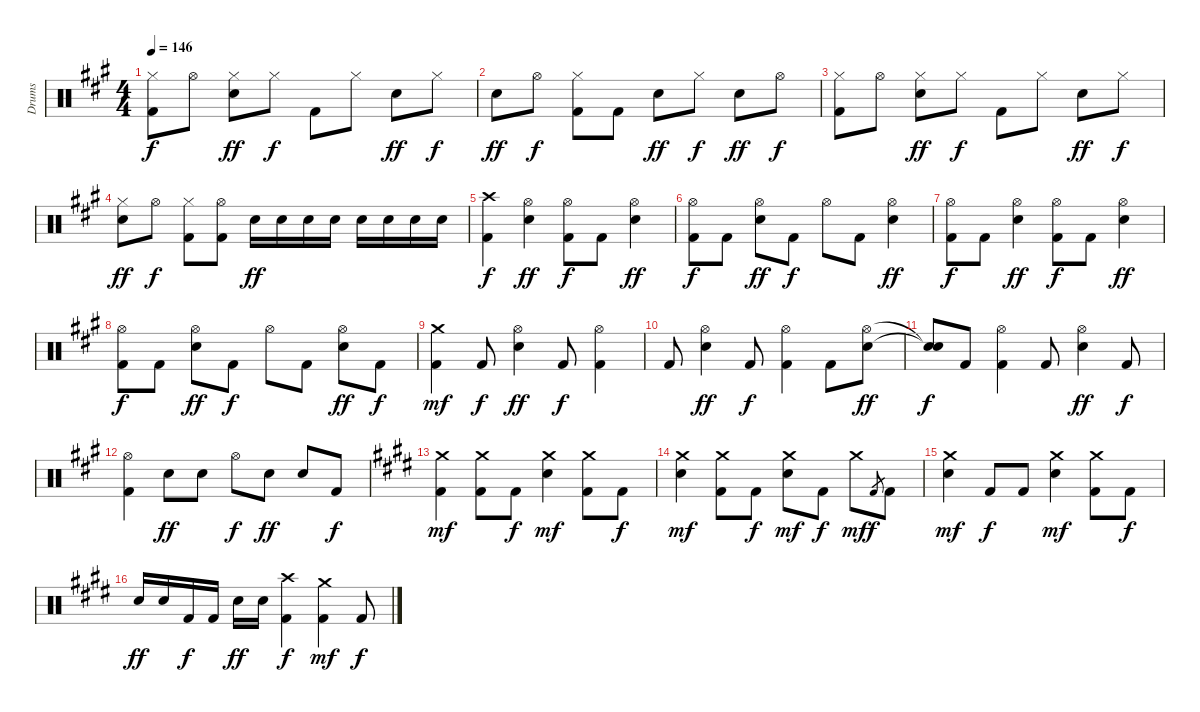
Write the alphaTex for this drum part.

\track ("Drums" "Drums") {instrument percussion}
\staff {score}
\articulation defaults
\ts (4 4)
\tempo 146
\clef neutral
\ks a
("Kick (hit) 2" "Hi-Hat (closed)").8{dy f} "Hi-Hat (open)".8 ("Electric Snare (hit)" "Hi-Hat (closed)").8{dy ff} "Hi-Hat (closed)".8{dy f} "Kick (hit) 2".8 "Hi-Hat (closed)".8 "Electric Snare (hit)".8{dy ff} "Hi-Hat (closed)".8{dy f} |
"Electric Snare (hit)".8{dy ff} "Hi-Hat (open)".8{dy f} ("Kick (hit) 2" "Hi-Hat (closed)").8 "Kick (hit) 2".8 "Electric Snare (hit)".8{dy ff} "Hi-Hat (closed)".8{dy f} "Electric Snare (hit)".8{dy ff} "Hi-Hat (open)".8{dy f} |
("Kick (hit) 2" "Hi-Hat (closed)").8 "Hi-Hat (open)".8 ("Electric Snare (hit)" "Hi-Hat (closed)").8{dy ff} "Hi-Hat (closed)".8{dy f} "Kick (hit) 2".8 "Hi-Hat (closed)".8 "Electric Snare (hit)".8{dy ff} "Hi-Hat (closed)".8{dy f} |
("Electric Snare (hit)" "Hi-Hat (closed)").8{dy ff} "Hi-Hat (open)".8{dy f} ("Kick (hit) 2" "Hi-Hat (closed)").8 ("Kick (hit) 2" "Hi-Hat (open)").8 "Electric Snare (hit)".16{dy ff} "Electric Snare (hit)".16 "Electric Snare (hit)".16 "Electric Snare (hit)".16 "Electric Snare (hit)".16 "Electric Snare (hit)".16 "Electric Snare (hit)".16 "Electric Snare (hit)".16 |
("Kick (hit) 2" "Crash high (hit)").4{dy f} ("Electric Snare (hit)" "Hi-Hat (open)").4{dy ff} ("Kick (hit) 2" "Hi-Hat (open)").8{dy f} "Kick (hit) 2".8 ("Electric Snare (hit)" "Hi-Hat (open)").4{dy ff} |
("Kick (hit) 2" "Hi-Hat (open)").8{dy f} "Kick (hit) 2".8 ("Electric Snare (hit)" "Hi-Hat (open)").8{dy ff} "Kick (hit) 2".8{dy f} "Hi-Hat (open)".8 "Kick (hit) 2".8 ("Electric Snare (hit)" "Hi-Hat (open)").4{dy ff} |
("Kick (hit) 2" "Hi-Hat (open)").8{dy f} "Kick (hit) 2".8 ("Electric Snare (hit)" "Hi-Hat (open)").4{dy ff} ("Kick (hit) 2" "Hi-Hat (open)").8{dy f} "Kick (hit) 2".8 ("Electric Snare (hit)" "Hi-Hat (open)").4{dy ff} |
("Kick (hit) 2" "Hi-Hat (open)").8{dy f} "Kick (hit) 2".8 ("Electric Snare (hit)" "Hi-Hat (open)").8{dy ff} "Kick (hit) 2".8{dy f} "Hi-Hat (open)".8 "Kick (hit) 2".8 ("Electric Snare (hit)" "Hi-Hat (open)").8{dy ff} "Kick (hit) 2".8{dy f} |
("Kick (hit) 2" "Crash medium (hit)").4{dy mf} "Kick (hit) 2".8{dy f} ("Electric Snare (hit)" "Hi-Hat (open)").4{dy ff} "Kick (hit) 2".8{dy f} ("Kick (hit) 2" "Hi-Hat (open)").4 |
"Kick (hit) 2".8 ("Electric Snare (hit)" "Hi-Hat (open)").4{dy ff} "Kick (hit) 2".8{dy f} ("Kick (hit) 2" "Hi-Hat (open)").4 "Kick (hit) 2".8 ("Electric Snare (hit)" "Hi-Hat (open)").8{dy ff} |
("Snare (hit)"{t} "Snare (hit)"{t}).8{dy f} "Kick (hit) 2".8 ("Kick (hit) 2" "Hi-Hat (open)").4 "Kick (hit) 2".8 ("Electric Snare (hit)" "Hi-Hat (open)").4{dy ff} "Kick (hit) 2".8{dy f} |
("Kick (hit) 2" "Hi-Hat (open)").4 "Electric Snare (hit)".8{dy ff} "Electric Snare (hit)".8 "Hi-Hat (open)".8{dy f} "Electric Snare (hit)".8{dy ff} "Electric Snare (hit)".8 "Kick (hit) 2".8{dy f} |
\ks e
("Kick (hit) 2" "Crash medium (hit)").4{dy mf} ("Kick (hit) 2" "Crash medium (hit)").8 "Kick (hit) 2".8{dy f} ("Electric Snare (hit)" "Crash medium (hit)").4{dy mf} ("Kick (hit) 2" "Crash medium (hit)").8 "Kick (hit) 2".8{dy f} |
("Electric Snare (hit)" "Crash medium (hit)").4{dy mf} ("Kick (hit) 2" "Crash medium (hit)").8 "Kick (hit) 2".8{dy f} ("Electric Snare (hit)" "Crash medium (hit)").8{dy mf} "Kick (hit) 2".8{dy f} "Crash medium (hit)".8{dy mf} "Kick (hit) 2".8{gr dy f} "Kick (hit) 2".8 |
("Electric Snare (hit)" "Crash medium (hit)").4{dy mf} "Kick (hit) 2".8{dy f} "Kick (hit) 2".8 ("Electric Snare (hit)" "Crash medium (hit)").4{dy mf} ("Kick (hit) 2" "Crash medium (hit)").8 "Kick (hit) 2".8{dy f} |
"Electric Snare (hit)".16{dy ff} "Electric Snare (hit)".16 "Kick (hit) 2".16{dy f} "Kick (hit) 2".16 "Electric Snare (hit)".16{dy ff} "Electric Snare (hit)".16 ("Kick (hit) 2" "Crash high (hit)").4{dy f} ("Kick (hit) 2" "Crash medium (hit)").4{dy mf} "Kick (hit) 2".8{dy f}
